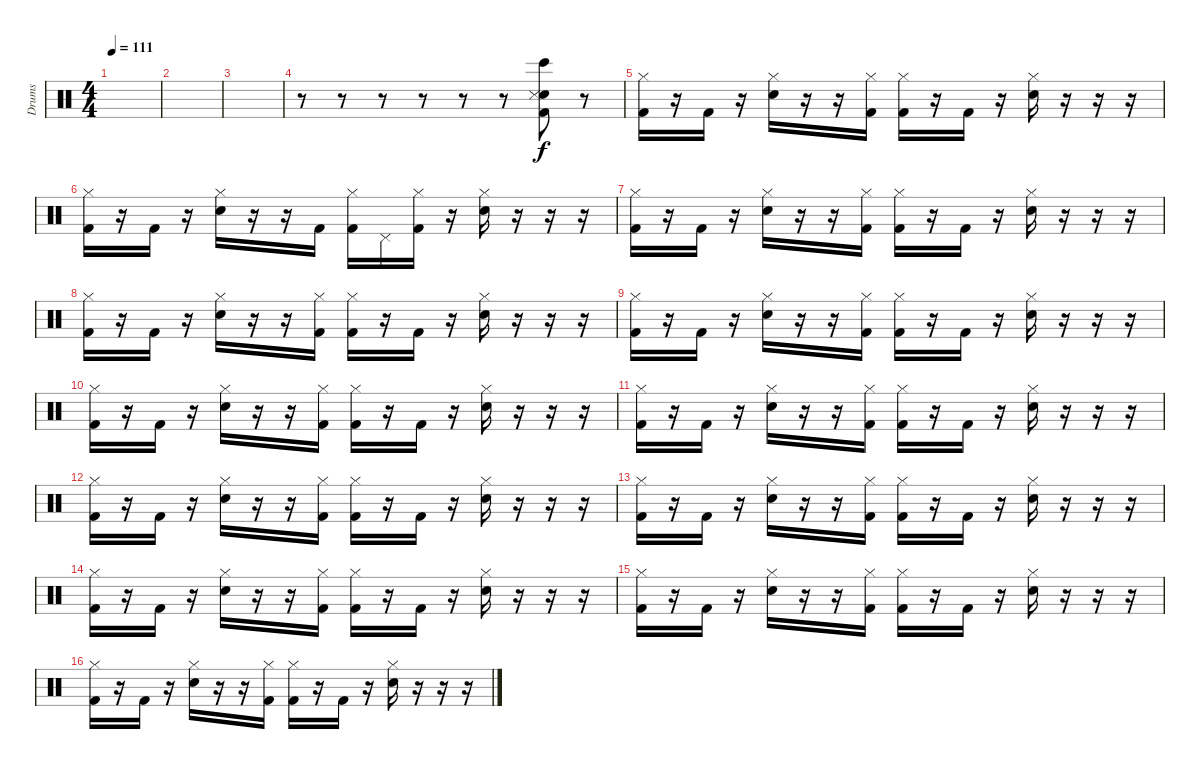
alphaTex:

\track ("Drums" "Drums") {instrument percussion}
\staff {score}
\articulation defaults
\ts (4 4)
\tempo 111
\clef neutral
\ks c
|
|
|
r.8 r.8 r.8 r.8 r.8 r.8 ("Bongo High (hit)" "Snare (hit) 2" "Snare (side stick) 3" "Kick (hit) 2").8 r.8 |
("Kick (hit) 2" "Hi-Hat (closed)").16 r.16 "Kick (hit) 2".16 r.16 ("Snare (hit) 2" "Hi-Hat (closed)").16 r.16 r.16 ("Kick (hit) 2" "Hi-Hat (closed)").16 ("Kick (hit) 2" "Hi-Hat (closed)").16 r.16 "Kick (hit) 2".16 r.16 ("Snare (hit) 2" "Hi-Hat (closed)").16 r.16 r.16 r.16 |
("Kick (hit) 2" "Hi-Hat (closed)").16 r.16 "Kick (hit) 2".16 r.16 ("Snare (hit) 2" "Hi-Hat (closed)").16 r.16 r.16 "Kick (hit) 2".16 ("Kick (hit) 2" "Hi-Hat (closed)").16 "Pedal Hi-Hat (hit)".16 ("Kick (hit) 2" "Hi-Hat (closed)").16 r.16 ("Snare (hit) 2" "Hi-Hat (closed)").16 r.16 r.16 r.16 |
("Kick (hit) 2" "Hi-Hat (closed)").16 r.16 "Kick (hit) 2".16 r.16 ("Snare (hit) 2" "Hi-Hat (closed)").16 r.16 r.16 ("Kick (hit) 2" "Hi-Hat (closed)").16 ("Kick (hit) 2" "Hi-Hat (closed)").16 r.16 "Kick (hit) 2".16 r.16 ("Snare (hit) 2" "Hi-Hat (closed)").16 r.16 r.16 r.16 |
("Kick (hit) 2" "Hi-Hat (closed)").16 r.16 "Kick (hit) 2".16 r.16 ("Snare (hit) 2" "Hi-Hat (closed)").16 r.16 r.16 ("Kick (hit) 2" "Hi-Hat (closed)").16 ("Kick (hit) 2" "Hi-Hat (closed)").16 r.16 "Kick (hit) 2".16 r.16 ("Snare (hit) 2" "Hi-Hat (closed)").16 r.16 r.16 r.16 |
("Kick (hit) 2" "Hi-Hat (closed)").16 r.16 "Kick (hit) 2".16 r.16 ("Snare (hit) 2" "Hi-Hat (closed)").16 r.16 r.16 ("Kick (hit) 2" "Hi-Hat (closed)").16 ("Kick (hit) 2" "Hi-Hat (closed)").16 r.16 "Kick (hit) 2".16 r.16 ("Snare (hit) 2" "Hi-Hat (closed)").16 r.16 r.16 r.16 |
("Kick (hit) 2" "Hi-Hat (closed)").16 r.16 "Kick (hit) 2".16 r.16 ("Snare (hit) 2" "Hi-Hat (closed)").16 r.16 r.16 ("Kick (hit) 2" "Hi-Hat (closed)").16 ("Kick (hit) 2" "Hi-Hat (closed)").16 r.16 "Kick (hit) 2".16 r.16 ("Snare (hit) 2" "Hi-Hat (closed)").16 r.16 r.16 r.16 |
("Kick (hit) 2" "Hi-Hat (closed)").16 r.16 "Kick (hit) 2".16 r.16 ("Snare (hit) 2" "Hi-Hat (closed)").16 r.16 r.16 ("Kick (hit) 2" "Hi-Hat (closed)").16 ("Kick (hit) 2" "Hi-Hat (closed)").16 r.16 "Kick (hit) 2".16 r.16 ("Snare (hit) 2" "Hi-Hat (closed)").16 r.16 r.16 r.16 |
("Kick (hit) 2" "Hi-Hat (closed)").16 r.16 "Kick (hit) 2".16 r.16 ("Snare (hit) 2" "Hi-Hat (closed)").16 r.16 r.16 ("Kick (hit) 2" "Hi-Hat (closed)").16 ("Kick (hit) 2" "Hi-Hat (closed)").16 r.16 "Kick (hit) 2".16 r.16 ("Snare (hit) 2" "Hi-Hat (closed)").16 r.16 r.16 r.16 |
("Kick (hit) 2" "Hi-Hat (closed)").16 r.16 "Kick (hit) 2".16 r.16 ("Snare (hit) 2" "Hi-Hat (closed)").16 r.16 r.16 ("Kick (hit) 2" "Hi-Hat (closed)").16 ("Kick (hit) 2" "Hi-Hat (closed)").16 r.16 "Kick (hit) 2".16 r.16 ("Snare (hit) 2" "Hi-Hat (closed)").16 r.16 r.16 r.16 |
("Kick (hit) 2" "Hi-Hat (closed)").16 r.16 "Kick (hit) 2".16 r.16 ("Snare (hit) 2" "Hi-Hat (closed)").16 r.16 r.16 ("Kick (hit) 2" "Hi-Hat (closed)").16 ("Kick (hit) 2" "Hi-Hat (closed)").16 r.16 "Kick (hit) 2".16 r.16 ("Snare (hit) 2" "Hi-Hat (closed)").16 r.16 r.16 r.16 |
("Kick (hit) 2" "Hi-Hat (closed)").16 r.16 "Kick (hit) 2".16 r.16 ("Snare (hit) 2" "Hi-Hat (closed)").16 r.16 r.16 ("Kick (hit) 2" "Hi-Hat (closed)").16 ("Kick (hit) 2" "Hi-Hat (closed)").16 r.16 "Kick (hit) 2".16 r.16 ("Snare (hit) 2" "Hi-Hat (closed)").16 r.16 r.16 r.16 |
("Kick (hit) 2" "Hi-Hat (closed)").16 r.16 "Kick (hit) 2".16 r.16 ("Snare (hit) 2" "Hi-Hat (closed)").16 r.16 r.16 ("Kick (hit) 2" "Hi-Hat (closed)").16 ("Kick (hit) 2" "Hi-Hat (closed)").16 r.16 "Kick (hit) 2".16 r.16 ("Snare (hit) 2" "Hi-Hat (closed)").16 r.16 r.16 r.16
